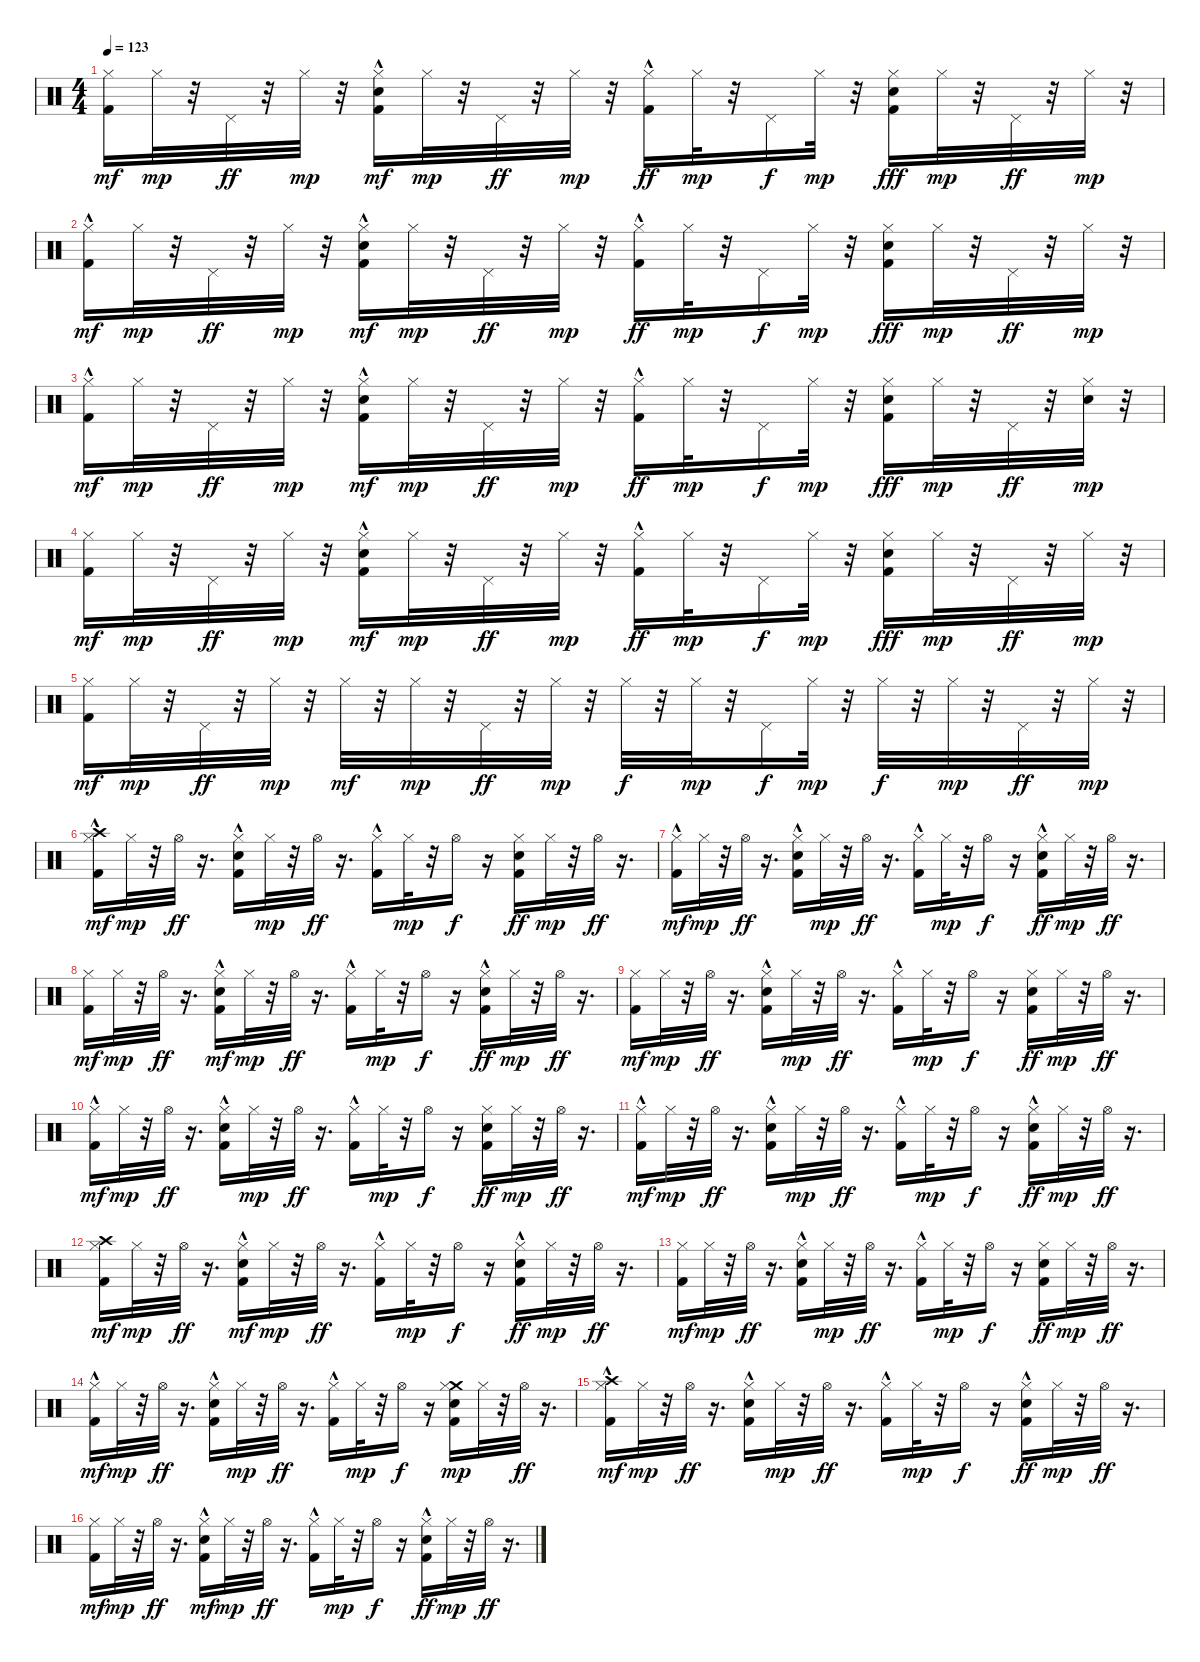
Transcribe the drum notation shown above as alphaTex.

\track "" {instrument percussion}
\staff {score}
\articulation defaults
\ts (4 4)
\tempo 123
\clef neutral
\ks c
("Kick (hit) 2" "Hi-Hat (closed)").16{dy mf} "Hi-Hat (closed)".32{dy mp} r.32 "Pedal Hi-Hat (hit)".32{dy ff} r.32 "Hi-Hat (closed)".32{dy mp} r.32 ("Kick (hit) 2"{hac} "Snare (hit) 2" "Hi-Hat (closed)").16{dy mf} "Hi-Hat (closed)".32{dy mp} r.32 "Pedal Hi-Hat (hit)".32{dy ff} r.32 "Hi-Hat (closed)".32{dy mp} r.32 ("Kick (hit) 2"{hac} "Hi-Hat (closed)").16{dy ff} "Hi-Hat (closed)".32{dy mp} r.32 "Pedal Hi-Hat (hit)".16{dy f} "Hi-Hat (closed)".32{dy mp} r.32 ("Kick (hit) 2" "Snare (hit) 2" "Hi-Hat (closed)").16{dy fff} "Hi-Hat (closed)".32{dy mp} r.32 "Pedal Hi-Hat (hit)".32{dy ff} r.32 "Hi-Hat (closed)".32{dy mp} r.32 |
("Kick (hit) 2"{hac} "Hi-Hat (closed)").16{dy mf} "Hi-Hat (closed)".32{dy mp} r.32 "Pedal Hi-Hat (hit)".32{dy ff} r.32 "Hi-Hat (closed)".32{dy mp} r.32 ("Kick (hit) 2"{hac} "Snare (hit) 2" "Hi-Hat (closed)").16{dy mf} "Hi-Hat (closed)".32{dy mp} r.32 "Pedal Hi-Hat (hit)".32{dy ff} r.32 "Hi-Hat (closed)".32{dy mp} r.32 ("Kick (hit) 2"{hac} "Hi-Hat (closed)").16{dy ff} "Hi-Hat (closed)".32{dy mp} r.32 "Pedal Hi-Hat (hit)".16{dy f} "Hi-Hat (closed)".32{dy mp} r.32 ("Kick (hit) 2" "Snare (hit) 2" "Hi-Hat (closed)").16{dy fff} "Hi-Hat (closed)".32{dy mp} r.32 "Pedal Hi-Hat (hit)".32{dy ff} r.32 "Hi-Hat (closed)".32{dy mp} r.32 |
("Kick (hit) 2"{hac} "Hi-Hat (closed)").16{dy mf} "Hi-Hat (closed)".32{dy mp} r.32 "Pedal Hi-Hat (hit)".32{dy ff} r.32 "Hi-Hat (closed)".32{dy mp} r.32 ("Kick (hit) 2"{hac} "Snare (hit) 2" "Hi-Hat (closed)").16{dy mf} "Hi-Hat (closed)".32{dy mp} r.32 "Pedal Hi-Hat (hit)".32{dy ff} r.32 "Hi-Hat (closed)".32{dy mp} r.32 ("Kick (hit) 2"{hac} "Hi-Hat (closed)").16{dy ff} "Hi-Hat (closed)".32{dy mp} r.32 "Pedal Hi-Hat (hit)".16{dy f} "Hi-Hat (closed)".32{dy mp} r.32 ("Kick (hit) 2" "Snare (hit) 2" "Hi-Hat (closed)").16{dy fff} "Hi-Hat (closed)".32{dy mp} r.32 "Pedal Hi-Hat (hit)".32{dy ff} r.32 ("Hi-Hat (closed)" "Snare (hit) 2").32{dy mp} r.32 |
("Kick (hit) 2" "Hi-Hat (closed)").16{dy mf} "Hi-Hat (closed)".32{dy mp} r.32 "Pedal Hi-Hat (hit)".32{dy ff} r.32 "Hi-Hat (closed)".32{dy mp} r.32 ("Kick (hit) 2"{hac} "Snare (hit) 2" "Hi-Hat (closed)").16{dy mf} "Hi-Hat (closed)".32{dy mp} r.32 "Pedal Hi-Hat (hit)".32{dy ff} r.32 "Hi-Hat (closed)".32{dy mp} r.32 ("Kick (hit) 2"{hac} "Hi-Hat (closed)").16{dy ff} "Hi-Hat (closed)".32{dy mp} r.32 "Pedal Hi-Hat (hit)".16{dy f} "Hi-Hat (closed)".32{dy mp} r.32 ("Kick (hit) 2" "Snare (hit) 2" "Hi-Hat (closed)").16{dy fff} "Hi-Hat (closed)".32{dy mp} r.32 "Pedal Hi-Hat (hit)".32{dy ff} r.32 "Hi-Hat (closed)".32{dy mp} r.32 |
("Kick (hit) 2" "Hi-Hat (closed)").16{dy mf} "Hi-Hat (closed)".32{dy mp} r.32 "Pedal Hi-Hat (hit)".32{dy ff} r.32 "Hi-Hat (closed)".32{dy mp} r.32 "Hi-Hat (closed)".32{dy mf} r.32 "Hi-Hat (closed)".32{dy mp} r.32 "Pedal Hi-Hat (hit)".32{dy ff} r.32 "Hi-Hat (closed)".32{dy mp} r.32 "Hi-Hat (closed)".32{dy f} r.32 "Hi-Hat (closed)".32{dy mp} r.32 "Pedal Hi-Hat (hit)".16{dy f} "Hi-Hat (closed)".32{dy mp} r.32 "Hi-Hat (closed)".32{dy f} r.32 "Hi-Hat (closed)".32{dy mp} r.32 "Pedal Hi-Hat (hit)".32{dy ff} r.32 "Hi-Hat (closed)".32{dy mp} r.32 |
("Kick (hit) 2"{hac} "Crash high (hit)" "Hi-Hat (closed)").16{dy mf} "Hi-Hat (closed)".32{dy mp} r.32 "Hi-Hat (open)".32{dy ff} r.16{d} ("Kick (hit) 2"{hac} "Hi-Hat (closed)" "Snare (hit) 2").16 "Hi-Hat (closed)".32{dy mp} r.32 "Hi-Hat (open)".32{dy ff} r.16{d} ("Kick (hit) 2"{hac} "Hi-Hat (closed)").16 "Hi-Hat (closed)".32{dy mp} r.32 "Hi-Hat (open)".16{dy f} r.16 ("Snare (hit) 2" "Kick (hit) 2" "Hi-Hat (closed)").16{dy ff} "Hi-Hat (closed)".32{dy mp} r.32 "Hi-Hat (open)".32{dy ff} r.16{d} |
("Kick (hit) 2"{hac} "Hi-Hat (closed)").16{dy mf} "Hi-Hat (closed)".32{dy mp} r.32 "Hi-Hat (open)".32{dy ff} r.16{d} ("Kick (hit) 2"{hac} "Hi-Hat (closed)" "Snare (hit) 2").16 "Hi-Hat (closed)".32{dy mp} r.32 "Hi-Hat (open)".32{dy ff} r.16{d} ("Kick (hit) 2"{hac} "Hi-Hat (closed)").16 "Hi-Hat (closed)".32{dy mp} r.32 "Hi-Hat (open)".16{dy f} r.16 ("Snare (hit) 2"{hac} "Kick (hit) 2" "Hi-Hat (closed)").16{dy ff} "Hi-Hat (closed)".32{dy mp} r.32 "Hi-Hat (open)".32{dy ff} r.16{d} |
("Kick (hit) 2" "Hi-Hat (closed)").16{dy mf} "Hi-Hat (closed)".32{dy mp} r.32 "Hi-Hat (open)".32{dy ff} r.16{d} ("Kick (hit) 2"{hac} "Snare (hit) 2"{hac} "Hi-Hat (closed)").16{dy mf} "Hi-Hat (closed)".32{dy mp} r.32 "Hi-Hat (open)".32{dy ff} r.16{d} ("Kick (hit) 2"{hac} "Hi-Hat (closed)").16 "Hi-Hat (closed)".32{dy mp} r.32 "Hi-Hat (open)".16{dy f} r.16 ("Snare (hit) 2"{hac} "Kick (hit) 2" "Hi-Hat (closed)").16{dy ff} "Hi-Hat (closed)".32{dy mp} r.32 "Hi-Hat (open)".32{dy ff} r.16{d} |
("Kick (hit) 2" "Hi-Hat (closed)").16{dy mf} "Hi-Hat (closed)".32{dy mp} r.32 "Hi-Hat (open)".32{dy ff} r.16{d} ("Kick (hit) 2"{hac} "Hi-Hat (closed)" "Snare (hit) 2"{hac}).16 "Hi-Hat (closed)".32{dy mp} r.32 "Hi-Hat (open)".32{dy ff} r.16{d} ("Kick (hit) 2"{hac} "Hi-Hat (closed)").16 "Hi-Hat (closed)".32{dy mp} r.32 "Hi-Hat (open)".16{dy f} r.16 ("Snare (hit) 2" "Kick (hit) 2" "Hi-Hat (closed)").16{dy ff} "Hi-Hat (closed)".32{dy mp} r.32 "Hi-Hat (open)".32{dy ff} r.16{d} |
("Kick (hit) 2"{hac} "Hi-Hat (closed)").16{dy mf} "Hi-Hat (closed)".32{dy mp} r.32 "Hi-Hat (open)".32{dy ff} r.16{d} ("Kick (hit) 2"{hac} "Hi-Hat (closed)" "Snare (hit) 2").16 "Hi-Hat (closed)".32{dy mp} r.32 "Hi-Hat (open)".32{dy ff} r.16{d} ("Kick (hit) 2"{hac} "Hi-Hat (closed)").16 "Hi-Hat (closed)".32{dy mp} r.32 "Hi-Hat (open)".16{dy f} r.16 ("Snare (hit) 2" "Kick (hit) 2" "Hi-Hat (closed)").16{dy ff} "Hi-Hat (closed)".32{dy mp} r.32 "Hi-Hat (open)".32{dy ff} r.16{d} |
("Kick (hit) 2"{hac} "Hi-Hat (closed)").16{dy mf} "Hi-Hat (closed)".32{dy mp} r.32 "Hi-Hat (open)".32{dy ff} r.16{d} ("Kick (hit) 2"{hac} "Hi-Hat (closed)" "Snare (hit) 2").16 "Hi-Hat (closed)".32{dy mp} r.32 "Hi-Hat (open)".32{dy ff} r.16{d} ("Kick (hit) 2"{hac} "Hi-Hat (closed)").16 "Hi-Hat (closed)".32{dy mp} r.32 "Hi-Hat (open)".16{dy f} r.16 ("Snare (hit) 2"{hac} "Kick (hit) 2" "Hi-Hat (closed)").16{dy ff} "Hi-Hat (closed)".32{dy mp} r.32 "Hi-Hat (open)".32{dy ff} r.16{d} |
("Kick (hit) 2" "Crash high (hit)" "Hi-Hat (closed)").16{dy mf} "Hi-Hat (closed)".32{dy mp} r.32 "Hi-Hat (open)".32{dy ff} r.16{d} ("Kick (hit) 2"{hac} "Snare (hit) 2"{hac} "Hi-Hat (closed)").16{dy mf} "Hi-Hat (closed)".32{dy mp} r.32 "Hi-Hat (open)".32{dy ff} r.16{d} ("Kick (hit) 2"{hac} "Hi-Hat (closed)").16 "Hi-Hat (closed)".32{dy mp} r.32 "Hi-Hat (open)".16{dy f} r.16 ("Snare (hit) 2"{hac} "Kick (hit) 2" "Hi-Hat (closed)").16{dy ff} "Hi-Hat (closed)".32{dy mp} r.32 "Hi-Hat (open)".32{dy ff} r.16{d} |
("Kick (hit) 2" "Hi-Hat (closed)").16{dy mf} "Hi-Hat (closed)".32{dy mp} r.32 "Hi-Hat (open)".32{dy ff} r.16{d} ("Kick (hit) 2"{hac} "Hi-Hat (closed)" "Snare (hit) 2"{hac}).16 "Hi-Hat (closed)".32{dy mp} r.32 "Hi-Hat (open)".32{dy ff} r.16{d} ("Kick (hit) 2"{hac} "Hi-Hat (closed)").16 "Hi-Hat (closed)".32{dy mp} r.32 "Hi-Hat (open)".16{dy f} r.16 ("Snare (hit) 2" "Kick (hit) 2" "Hi-Hat (closed)").16{dy ff} "Hi-Hat (closed)".32{dy mp} r.32 "Hi-Hat (open)".32{dy ff} r.16{d} |
("Kick (hit) 2"{hac} "Hi-Hat (closed)").16{dy mf} "Hi-Hat (closed)".32{dy mp} r.32 "Hi-Hat (open)".32{dy ff} r.16{d} ("Kick (hit) 2"{hac} "Hi-Hat (closed)" "Snare (hit) 2").16 "Hi-Hat (closed)".32{dy mp} r.32 "Hi-Hat (open)".32{dy ff} r.16{d} ("Kick (hit) 2"{hac} "Hi-Hat (closed)").16 "Hi-Hat (closed)".32{dy mp} r.32 "Hi-Hat (open)".16{dy f} r.16 ("Snare (hit) 2" "Kick (hit) 2" "Crash medium (hit)" "Hi-Hat (closed)").16{dy mp} "Hi-Hat (closed)".32 r.32 "Hi-Hat (open)".32{dy ff} r.16{d} |
("Kick (hit) 2"{hac} "Crash high (hit)" "Hi-Hat (closed)").16{dy mf} "Hi-Hat (closed)".32{dy mp} r.32 "Hi-Hat (open)".32{dy ff} r.16{d} ("Kick (hit) 2"{hac} "Hi-Hat (closed)" "Snare (hit) 2").16 "Hi-Hat (closed)".32{dy mp} r.32 "Hi-Hat (open)".32{dy ff} r.16{d} ("Kick (hit) 2"{hac} "Hi-Hat (closed)").16 "Hi-Hat (closed)".32{dy mp} r.32 "Hi-Hat (open)".16{dy f} r.16 ("Snare (hit) 2"{hac} "Kick (hit) 2" "Hi-Hat (closed)").16{dy ff} "Hi-Hat (closed)".32{dy mp} r.32 "Hi-Hat (open)".32{dy ff} r.16{d} |
("Kick (hit) 2" "Hi-Hat (closed)").16{dy mf} "Hi-Hat (closed)".32{dy mp} r.32 "Hi-Hat (open)".32{dy ff} r.16{d} ("Kick (hit) 2"{hac} "Snare (hit) 2"{hac} "Hi-Hat (closed)").16{dy mf} "Hi-Hat (closed)".32{dy mp} r.32 "Hi-Hat (open)".32{dy ff} r.16{d} ("Kick (hit) 2"{hac} "Hi-Hat (closed)").16 "Hi-Hat (closed)".32{dy mp} r.32 "Hi-Hat (open)".16{dy f} r.16 ("Snare (hit) 2"{hac} "Kick (hit) 2" "Hi-Hat (closed)").16{dy ff} "Hi-Hat (closed)".32{dy mp} r.32 "Hi-Hat (open)".32{dy ff} r.16{d}
